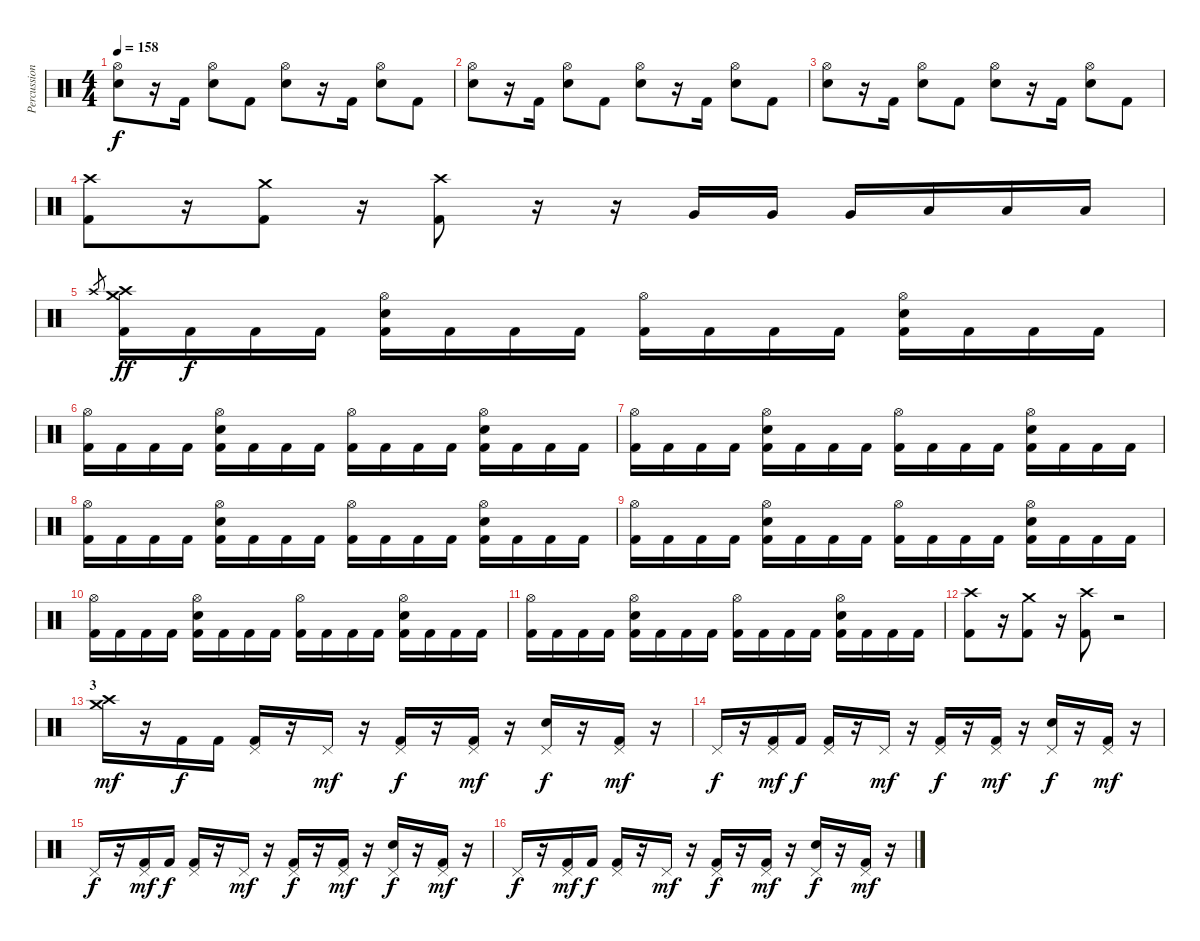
\track ("Percussions" "Percussion") {instrument percussion}
\staff {score}
\articulation defaults
\ts (4 4)
\tempo 158
\clef neutral
\ks c
("Hi-Hat (open)" "Electric Snare (hit)").8{dy f} r.16 "Kick (hit) 2".16 ("Hi-Hat (open)" "Electric Snare (hit)").8 "Kick (hit) 2".8 ("Hi-Hat (open)" "Electric Snare (hit)").8 r.16 "Kick (hit) 2".16 ("Hi-Hat (open)" "Electric Snare (hit)").8 "Kick (hit) 2".8 |
("Hi-Hat (open)" "Electric Snare (hit)").8 r.16 "Kick (hit) 2".16 ("Hi-Hat (open)" "Electric Snare (hit)").8 "Kick (hit) 2".8 ("Hi-Hat (open)" "Electric Snare (hit)").8 r.16 "Kick (hit) 2".16 ("Hi-Hat (open)" "Electric Snare (hit)").8 "Kick (hit) 2".8 |
("Hi-Hat (open)" "Electric Snare (hit)").8 r.16 "Kick (hit) 2".16 ("Hi-Hat (open)" "Electric Snare (hit)").8 "Kick (hit) 2".8 ("Hi-Hat (open)" "Electric Snare (hit)").8 r.16 "Kick (hit) 2".16 ("Hi-Hat (open)" "Electric Snare (hit)").8 "Kick (hit) 2".8 |
("Crash high (hit)" "Kick (hit) 2").8 r.16 ("Crash medium (hit)" "Kick (hit) 2").8 r.16 ("Crash high (hit)" "Kick (hit) 2").8 r.16 r.16 "Very Low Tom (hit)".16 "Very Low Tom (hit)".16 "Very Low Tom (hit)".16 "Low Floor Tom (hit)".16 "Low Floor Tom (hit)".16 "Low Floor Tom (hit)".16 |
"Crash high (hit)".8{gr} ("Crash medium (hit)" "Crash high (hit)" "Kick (hit) 2").16{dy ff} "Kick (hit) 2".16{dy f} "Kick (hit) 2".16 "Kick (hit) 2".16 ("Hi-Hat (open)" "Electric Snare (hit)" "Kick (hit) 2").16 "Kick (hit) 2".16 "Kick (hit) 2".16 "Kick (hit) 2".16 ("Hi-Hat (open)" "Kick (hit) 2").16 "Kick (hit) 2".16 "Kick (hit) 2".16 "Kick (hit) 2".16 ("Hi-Hat (open)" "Electric Snare (hit)" "Kick (hit) 2").16 "Kick (hit) 2".16 "Kick (hit) 2".16 "Kick (hit) 2".16 |
("Hi-Hat (open)" "Kick (hit) 2").16 "Kick (hit) 2".16 "Kick (hit) 2".16 "Kick (hit) 2".16 ("Hi-Hat (open)" "Electric Snare (hit)" "Kick (hit) 2").16 "Kick (hit) 2".16 "Kick (hit) 2".16 "Kick (hit) 2".16 ("Hi-Hat (open)" "Kick (hit) 2").16 "Kick (hit) 2".16 "Kick (hit) 2".16 "Kick (hit) 2".16 ("Hi-Hat (open)" "Electric Snare (hit)" "Kick (hit) 2").16 "Kick (hit) 2".16 "Kick (hit) 2".16 "Kick (hit) 2".16 |
("Hi-Hat (open)" "Kick (hit) 2").16 "Kick (hit) 2".16 "Kick (hit) 2".16 "Kick (hit) 2".16 ("Hi-Hat (open)" "Electric Snare (hit)" "Kick (hit) 2").16 "Kick (hit) 2".16 "Kick (hit) 2".16 "Kick (hit) 2".16 ("Hi-Hat (open)" "Kick (hit) 2").16 "Kick (hit) 2".16 "Kick (hit) 2".16 "Kick (hit) 2".16 ("Hi-Hat (open)" "Electric Snare (hit)" "Kick (hit) 2").16 "Kick (hit) 2".16 "Kick (hit) 2".16 "Kick (hit) 2".16 |
("Hi-Hat (open)" "Kick (hit) 2").16 "Kick (hit) 2".16 "Kick (hit) 2".16 "Kick (hit) 2".16 ("Hi-Hat (open)" "Electric Snare (hit)" "Kick (hit) 2").16 "Kick (hit) 2".16 "Kick (hit) 2".16 "Kick (hit) 2".16 ("Hi-Hat (open)" "Kick (hit) 2").16 "Kick (hit) 2".16 "Kick (hit) 2".16 "Kick (hit) 2".16 ("Hi-Hat (open)" "Electric Snare (hit)" "Kick (hit) 2").16 "Kick (hit) 2".16 "Kick (hit) 2".16 "Kick (hit) 2".16 |
("Hi-Hat (open)" "Kick (hit) 2").16 "Kick (hit) 2".16 "Kick (hit) 2".16 "Kick (hit) 2".16 ("Hi-Hat (open)" "Electric Snare (hit)" "Kick (hit) 2").16 "Kick (hit) 2".16 "Kick (hit) 2".16 "Kick (hit) 2".16 ("Hi-Hat (open)" "Kick (hit) 2").16 "Kick (hit) 2".16 "Kick (hit) 2".16 "Kick (hit) 2".16 ("Hi-Hat (open)" "Electric Snare (hit)" "Kick (hit) 2").16 "Kick (hit) 2".16 "Kick (hit) 2".16 "Kick (hit) 2".16 |
("Hi-Hat (open)" "Kick (hit) 2").16 "Kick (hit) 2".16 "Kick (hit) 2".16 "Kick (hit) 2".16 ("Hi-Hat (open)" "Electric Snare (hit)" "Kick (hit) 2").16 "Kick (hit) 2".16 "Kick (hit) 2".16 "Kick (hit) 2".16 ("Hi-Hat (open)" "Kick (hit) 2").16 "Kick (hit) 2".16 "Kick (hit) 2".16 "Kick (hit) 2".16 ("Hi-Hat (open)" "Electric Snare (hit)" "Kick (hit) 2").16 "Kick (hit) 2".16 "Kick (hit) 2".16 "Kick (hit) 2".16 |
("Hi-Hat (open)" "Kick (hit) 2").16 "Kick (hit) 2".16 "Kick (hit) 2".16 "Kick (hit) 2".16 ("Hi-Hat (open)" "Electric Snare (hit)" "Kick (hit) 2").16 "Kick (hit) 2".16 "Kick (hit) 2".16 "Kick (hit) 2".16 ("Hi-Hat (open)" "Kick (hit) 2").16 "Kick (hit) 2".16 "Kick (hit) 2".16 "Kick (hit) 2".16 ("Hi-Hat (open)" "Electric Snare (hit)" "Kick (hit) 2").16 "Kick (hit) 2".16 "Kick (hit) 2".16 "Kick (hit) 2".16 |
("Crash high (hit)" "Kick (hit) 2").8 r.16 ("Crash medium (hit)" "Kick (hit) 2").8 r.16 ("Crash high (hit)" "Kick (hit) 2").8 r.2 |
\section ("" "3")
("Crash medium (hit)" "Crash high (hit)").16{dy mf} r.16 "Kick (hit) 2".16{dy f} "Kick (hit) 2".16 ("Pedal Hi-Hat (hit)" "Kick (hit) 2").16 r.16 "Pedal Hi-Hat (hit)".16{dy mf} r.16 ("Pedal Hi-Hat (hit)" "Kick (hit) 2").16{dy f} r.16 ("Pedal Hi-Hat (hit)" "Kick (hit) 2").16{dy mf} r.16 ("Pedal Hi-Hat (hit)" "Electric Snare (hit)").16{dy f} r.16 ("Pedal Hi-Hat (hit)" "Kick (hit) 2").16{dy mf} r.16 |
"Pedal Hi-Hat (hit)".16{dy f} r.16 ("Pedal Hi-Hat (hit)" "Kick (hit) 2").16{dy mf} "Kick (hit) 2".16{dy f} ("Pedal Hi-Hat (hit)" "Kick (hit) 2").16 r.16 "Pedal Hi-Hat (hit)".16{dy mf} r.16 ("Pedal Hi-Hat (hit)" "Kick (hit) 2").16{dy f} r.16 ("Pedal Hi-Hat (hit)" "Kick (hit) 2").16{dy mf} r.16 ("Pedal Hi-Hat (hit)" "Electric Snare (hit)").16{dy f} r.16 ("Pedal Hi-Hat (hit)" "Kick (hit) 2").16{dy mf} r.16 |
"Pedal Hi-Hat (hit)".16{dy f} r.16 ("Pedal Hi-Hat (hit)" "Kick (hit) 2").16{dy mf} "Kick (hit) 2".16{dy f} ("Pedal Hi-Hat (hit)" "Kick (hit) 2").16 r.16 "Pedal Hi-Hat (hit)".16{dy mf} r.16 ("Pedal Hi-Hat (hit)" "Kick (hit) 2").16{dy f} r.16 ("Pedal Hi-Hat (hit)" "Kick (hit) 2").16{dy mf} r.16 ("Pedal Hi-Hat (hit)" "Electric Snare (hit)").16{dy f} r.16 ("Pedal Hi-Hat (hit)" "Kick (hit) 2").16{dy mf} r.16 |
"Pedal Hi-Hat (hit)".16{dy f} r.16 ("Pedal Hi-Hat (hit)" "Kick (hit) 2").16{dy mf} "Kick (hit) 2".16{dy f} ("Pedal Hi-Hat (hit)" "Kick (hit) 2").16 r.16 "Pedal Hi-Hat (hit)".16{dy mf} r.16 ("Pedal Hi-Hat (hit)" "Kick (hit) 2").16{dy f} r.16 ("Pedal Hi-Hat (hit)" "Kick (hit) 2").16{dy mf} r.16 ("Pedal Hi-Hat (hit)" "Electric Snare (hit)").16{dy f} r.16 ("Pedal Hi-Hat (hit)" "Kick (hit) 2").16{dy mf} r.16
